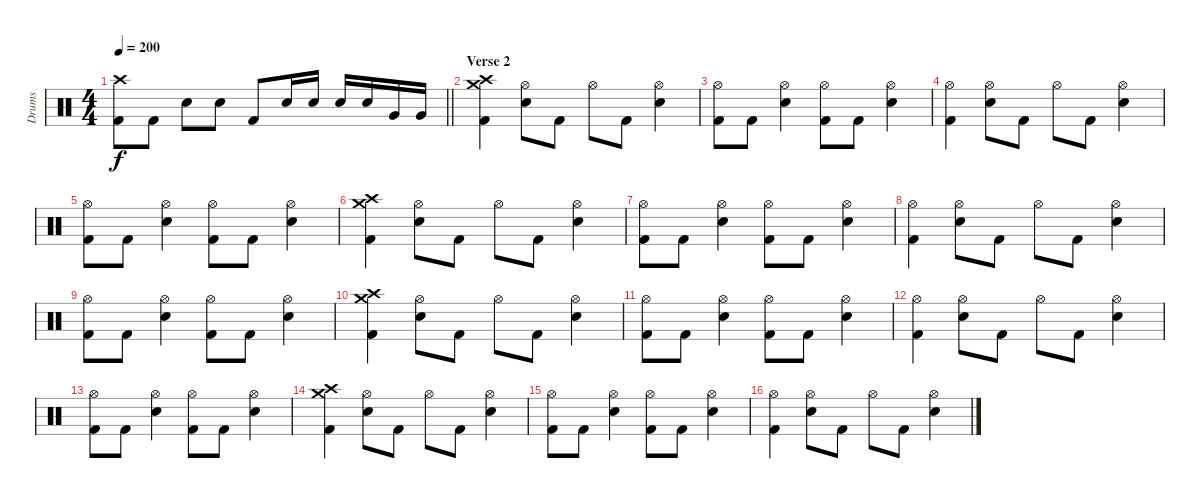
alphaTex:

\track ("Drums" "Drums") {instrument percussion}
\staff {score}
\articulation defaults
\ts (4 4)
\tempo 200
\clef neutral
\barLineRight lightlight
\ks c
("Crash high (hit)" "Kick (hit) 2").8{dy f} "Kick (hit) 2".8 "Electric Snare (hit)".8 "Electric Snare (hit)".8 "Kick (hit) 2".8 "Electric Snare (hit)".16 "Electric Snare (hit)".16 "Electric Snare (hit)".16 "Electric Snare (hit)".16 "Very Low Tom (hit)".16 "Very Low Tom (hit)".16 |
\section ("" "Verse 2")
("Crash medium (hit)" "Crash high (hit)" "Kick (hit) 2").4 ("Hi-Hat (open)" "Electric Snare (hit)").8 "Kick (hit) 2".8 "Hi-Hat (open)".8 "Kick (hit) 2".8 ("Hi-Hat (open)" "Electric Snare (hit)").4 |
("Hi-Hat (open)" "Kick (hit) 2").8 "Kick (hit) 2".8 ("Hi-Hat (open)" "Electric Snare (hit)").4 ("Hi-Hat (open)" "Kick (hit) 2").8 "Kick (hit) 2".8 ("Hi-Hat (open)" "Electric Snare (hit)").4 |
("Hi-Hat (open)" "Kick (hit) 2").4 ("Hi-Hat (open)" "Electric Snare (hit)").8 "Kick (hit) 2".8 "Hi-Hat (open)".8 "Kick (hit) 2".8 ("Hi-Hat (open)" "Electric Snare (hit)").4 |
("Hi-Hat (open)" "Kick (hit) 2").8 "Kick (hit) 2".8 ("Hi-Hat (open)" "Electric Snare (hit)").4 ("Hi-Hat (open)" "Kick (hit) 2").8 "Kick (hit) 2".8 ("Hi-Hat (open)" "Electric Snare (hit)").4 |
("Crash medium (hit)" "Crash high (hit)" "Kick (hit) 2").4 ("Hi-Hat (open)" "Electric Snare (hit)").8 "Kick (hit) 2".8 "Hi-Hat (open)".8 "Kick (hit) 2".8 ("Hi-Hat (open)" "Electric Snare (hit)").4 |
("Hi-Hat (open)" "Kick (hit) 2").8 "Kick (hit) 2".8 ("Hi-Hat (open)" "Electric Snare (hit)").4 ("Hi-Hat (open)" "Kick (hit) 2").8 "Kick (hit) 2".8 ("Hi-Hat (open)" "Electric Snare (hit)").4 |
("Hi-Hat (open)" "Kick (hit) 2").4 ("Hi-Hat (open)" "Electric Snare (hit)").8 "Kick (hit) 2".8 "Hi-Hat (open)".8 "Kick (hit) 2".8 ("Hi-Hat (open)" "Electric Snare (hit)").4 |
("Hi-Hat (open)" "Kick (hit) 2").8 "Kick (hit) 2".8 ("Hi-Hat (open)" "Electric Snare (hit)").4 ("Hi-Hat (open)" "Kick (hit) 2").8 "Kick (hit) 2".8 ("Hi-Hat (open)" "Electric Snare (hit)").4 |
("Crash medium (hit)" "Crash high (hit)" "Kick (hit) 2").4 ("Hi-Hat (open)" "Electric Snare (hit)").8 "Kick (hit) 2".8 "Hi-Hat (open)".8 "Kick (hit) 2".8 ("Hi-Hat (open)" "Electric Snare (hit)").4 |
("Hi-Hat (open)" "Kick (hit) 2").8 "Kick (hit) 2".8 ("Hi-Hat (open)" "Electric Snare (hit)").4 ("Hi-Hat (open)" "Kick (hit) 2").8 "Kick (hit) 2".8 ("Hi-Hat (open)" "Electric Snare (hit)").4 |
("Hi-Hat (open)" "Kick (hit) 2").4 ("Hi-Hat (open)" "Electric Snare (hit)").8 "Kick (hit) 2".8 "Hi-Hat (open)".8 "Kick (hit) 2".8 ("Hi-Hat (open)" "Electric Snare (hit)").4 |
("Hi-Hat (open)" "Kick (hit) 2").8 "Kick (hit) 2".8 ("Hi-Hat (open)" "Electric Snare (hit)").4 ("Hi-Hat (open)" "Kick (hit) 2").8 "Kick (hit) 2".8 ("Hi-Hat (open)" "Electric Snare (hit)").4 |
("Crash medium (hit)" "Crash high (hit)" "Kick (hit) 2").4 ("Hi-Hat (open)" "Electric Snare (hit)").8 "Kick (hit) 2".8 "Hi-Hat (open)".8 "Kick (hit) 2".8 ("Hi-Hat (open)" "Electric Snare (hit)").4 |
("Hi-Hat (open)" "Kick (hit) 2").8 "Kick (hit) 2".8 ("Hi-Hat (open)" "Electric Snare (hit)").4 ("Hi-Hat (open)" "Kick (hit) 2").8 "Kick (hit) 2".8 ("Hi-Hat (open)" "Electric Snare (hit)").4 |
("Hi-Hat (open)" "Kick (hit) 2").4 ("Hi-Hat (open)" "Electric Snare (hit)").8 "Kick (hit) 2".8 "Hi-Hat (open)".8 "Kick (hit) 2".8 ("Hi-Hat (open)" "Electric Snare (hit)").4
